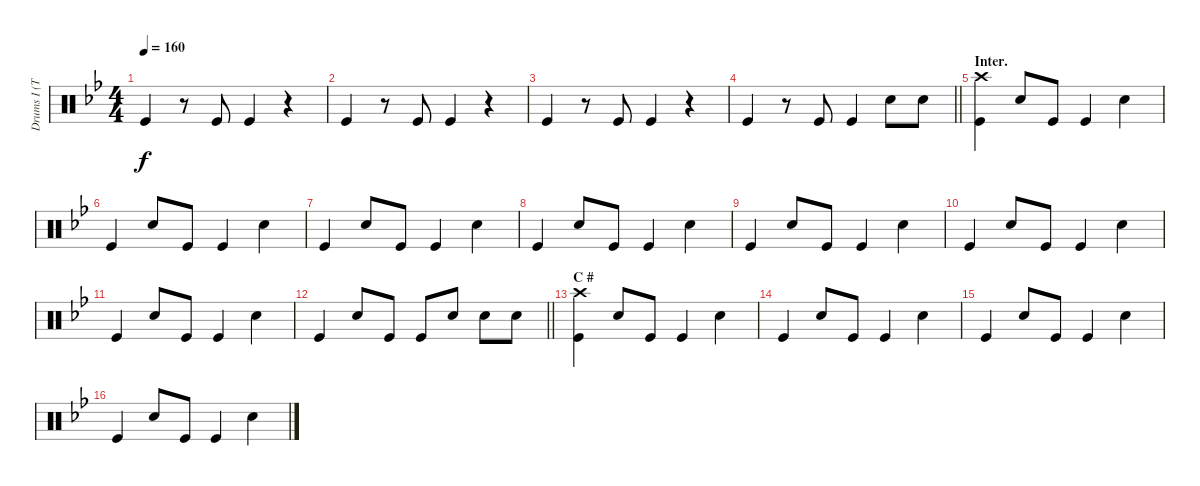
\track ("Drums I (Tainaka Ritsu)" "Drums I (T") {instrument percussion}
\staff {score}
\articulation defaults
\ts (4 4)
\tempo 160
\clef neutral
\ks bb "Kick (hit)".4{dy f}
r.8 "Kick (hit)".8 "Kick (hit)".4 r.4 |
"Kick (hit)".4 r.8 "Kick (hit)".8 "Kick (hit)".4 r.4 |
"Kick (hit)".4 r.8 "Kick (hit)".8 "Kick (hit)".4 r.4 |
\barLineRight lightlight "Kick (hit)".4
r.8 "Kick (hit)".8 "Kick (hit)".4 "Snare (hit) 2".8 "Snare (hit) 2".8 |
\section ("" "Inter.")
("Crash high (hit)" "Kick (hit)").4 "Snare (hit) 2".8 "Kick (hit)".8 "Kick (hit)".4 "Snare (hit) 2".4 |
"Kick (hit)".4 "Snare (hit) 2".8 "Kick (hit)".8 "Kick (hit)".4 "Snare (hit) 2".4 |
"Kick (hit)".4 "Snare (hit) 2".8 "Kick (hit)".8 "Kick (hit)".4 "Snare (hit) 2".4 |
"Kick (hit)".4 "Snare (hit) 2".8 "Kick (hit)".8 "Kick (hit)".4 "Snare (hit) 2".4 |
"Kick (hit)".4 "Snare (hit) 2".8 "Kick (hit)".8 "Kick (hit)".4 "Snare (hit) 2".4 |
"Kick (hit)".4 "Snare (hit) 2".8 "Kick (hit)".8 "Kick (hit)".4 "Snare (hit) 2".4 |
"Kick (hit)".4 "Snare (hit) 2".8 "Kick (hit)".8 "Kick (hit)".4 "Snare (hit) 2".4 |
\barLineRight lightlight "Kick (hit)".4 "Snare (hit) 2".8 "Kick (hit)".8 "Kick (hit)".8 "Snare (hit) 2".8 "Snare (hit) 2".8 "Snare (hit) 2".8
|
\section ("" "C #")
("Crash high (hit)" "Kick (hit)").4 "Snare (hit) 2".8 "Kick (hit)".8 "Kick (hit)".4 "Snare (hit) 2".4 |
"Kick (hit)".4 "Snare (hit) 2".8 "Kick (hit)".8 "Kick (hit)".4 "Snare (hit) 2".4 |
"Kick (hit)".4 "Snare (hit) 2".8 "Kick (hit)".8 "Kick (hit)".4 "Snare (hit) 2".4 |
"Kick (hit)".4 "Snare (hit) 2".8 "Kick (hit)".8 "Kick (hit)".4 "Snare (hit) 2".4
